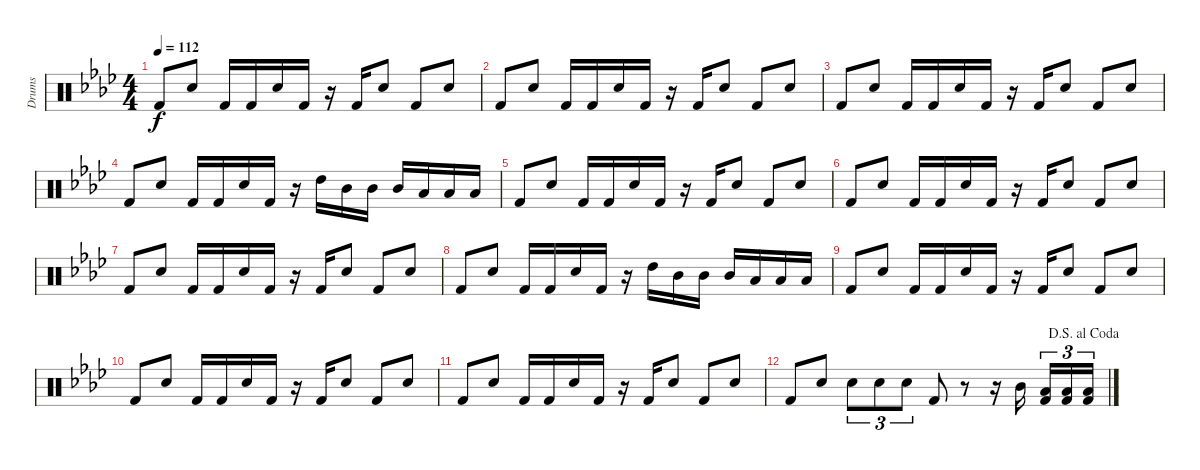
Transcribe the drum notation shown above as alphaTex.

\track ("Drums" "Drums") {instrument percussion}
\staff {score}
\articulation defaults
\ts (4 4)
\tempo 112
\clef neutral
\ks ab "Kick (hit) 2".8{dy f} "Electric Snare (hit)".8 "Kick (hit) 2".16 "Kick (hit) 2".16 "Electric Snare (hit)".16 "Kick (hit) 2".16
r.16 "Kick (hit) 2".16 "Electric Snare (hit)".8 "Kick (hit) 2".8 "Electric Snare (hit)".8 |
"Kick (hit) 2".8 "Electric Snare (hit)".8 "Kick (hit) 2".16 "Kick (hit) 2".16 "Electric Snare (hit)".16 "Kick (hit) 2".16 r.16 "Kick (hit) 2".16 "Electric Snare (hit)".8 "Kick (hit) 2".8 "Electric Snare (hit)".8 |
"Kick (hit) 2".8 "Electric Snare (hit)".8 "Kick (hit) 2".16 "Kick (hit) 2".16 "Electric Snare (hit)".16 "Kick (hit) 2".16 r.16 "Kick (hit) 2".16 "Electric Snare (hit)".8 "Kick (hit) 2".8 "Electric Snare (hit)".8 |
"Kick (hit) 2".8 "Electric Snare (hit)".8 "Kick (hit) 2".16 "Kick (hit) 2".16 "Electric Snare (hit)".16 "Kick (hit) 2".16 r.16 "High Tom (hit)".16 "Mid Tom (hit)".16 "Mid Tom (hit)".16 "Mid Tom (hit)".16 "Low Tom (hit)".16 "Low Tom (hit)".16 "Low Tom (hit)".16 |
"Kick (hit) 2".8 "Electric Snare (hit)".8 "Kick (hit) 2".16 "Kick (hit) 2".16 "Electric Snare (hit)".16 "Kick (hit) 2".16 r.16 "Kick (hit) 2".16 "Electric Snare (hit)".8 "Kick (hit) 2".8 "Electric Snare (hit)".8 |
"Kick (hit) 2".8 "Electric Snare (hit)".8 "Kick (hit) 2".16 "Kick (hit) 2".16 "Electric Snare (hit)".16 "Kick (hit) 2".16 r.16 "Kick (hit) 2".16 "Electric Snare (hit)".8 "Kick (hit) 2".8 "Electric Snare (hit)".8 |
"Kick (hit) 2".8 "Electric Snare (hit)".8 "Kick (hit) 2".16 "Kick (hit) 2".16 "Electric Snare (hit)".16 "Kick (hit) 2".16 r.16 "Kick (hit) 2".16 "Electric Snare (hit)".8 "Kick (hit) 2".8 "Electric Snare (hit)".8 |
"Kick (hit) 2".8 "Electric Snare (hit)".8 "Kick (hit) 2".16 "Kick (hit) 2".16 "Electric Snare (hit)".16 "Kick (hit) 2".16 r.16 "High Tom (hit)".16 "Mid Tom (hit)".16 "Mid Tom (hit)".16 "Mid Tom (hit)".16 "Low Tom (hit)".16 "Low Tom (hit)".16 "Low Tom (hit)".16 |
"Kick (hit) 2".8 "Electric Snare (hit)".8 "Kick (hit) 2".16 "Kick (hit) 2".16 "Electric Snare (hit)".16 "Kick (hit) 2".16 r.16 "Kick (hit) 2".16 "Electric Snare (hit)".8 "Kick (hit) 2".8 "Electric Snare (hit)".8 |
"Kick (hit) 2".8 "Electric Snare (hit)".8 "Kick (hit) 2".16 "Kick (hit) 2".16 "Electric Snare (hit)".16 "Kick (hit) 2".16 r.16 "Kick (hit) 2".16 "Electric Snare (hit)".8 "Kick (hit) 2".8 "Electric Snare (hit)".8 |
"Kick (hit) 2".8 "Electric Snare (hit)".8 "Kick (hit) 2".16 "Kick (hit) 2".16 "Electric Snare (hit)".16 "Kick (hit) 2".16 r.16 "Kick (hit) 2".16 "Electric Snare (hit)".8 "Kick (hit) 2".8 "Electric Snare (hit)".8 |
\jump dalsegnoalcoda "Kick (hit) 2".8 "Electric Snare (hit)".8 "Electric Snare (hit)".8{tu (3 2)} "Electric Snare (hit)".8{tu (3 2)} "Electric Snare (hit)".8{tu (3 2)} "Kick (hit) 2".8
r.8 r.16 "Mid Tom (hit)".16{beam splitsecondary} ("Low Tom (hit)" "Kick (hit) 2").16{tu (3 2)} ("Low Tom (hit)" "Kick (hit) 2").16{tu (3 2)} ("Low Tom (hit)" "Kick (hit) 2").16{tu (3 2)}
